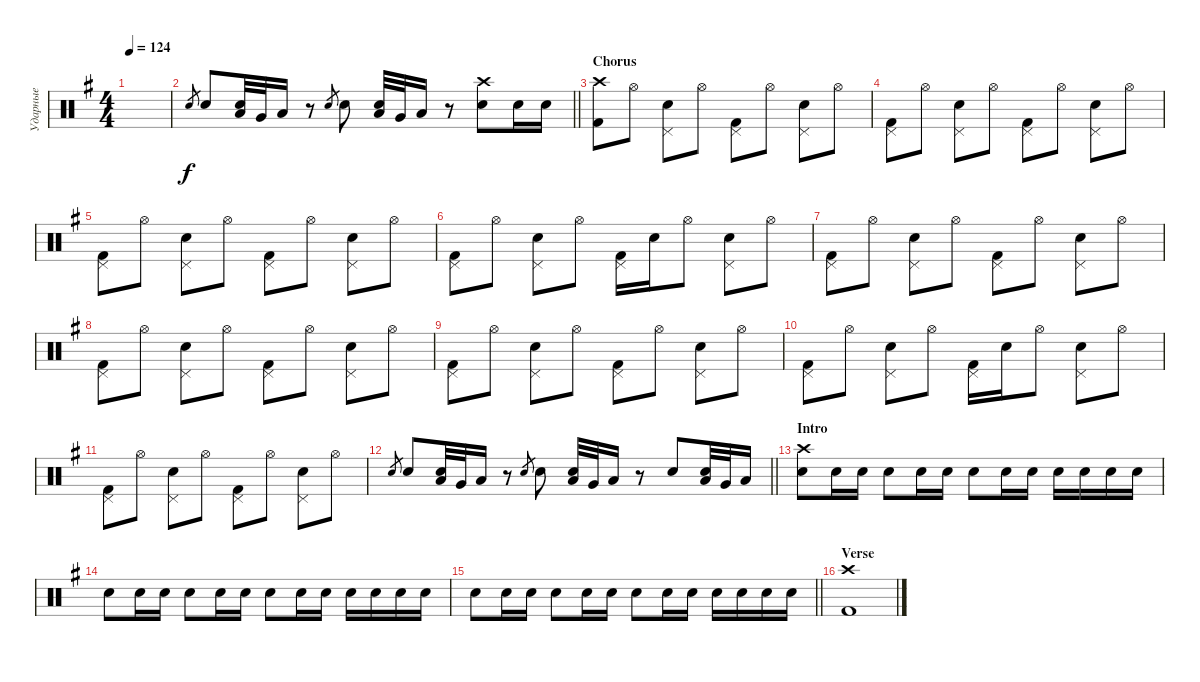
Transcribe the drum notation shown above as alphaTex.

\track ("Ударные" "Ударные") {instrument percussion}
\staff {score}
\articulation defaults
\ts (4 4)
\tempo 124
\clef neutral
\ks g
|
\barLineRight lightlight "Electric Snare (hit)".8{gr} "Electric Snare (hit)".8{volume 13}
("Low Tom (hit)" "Electric Snare (hit)").32 "Very Low Tom (hit)".32 "Low Floor Tom (hit)".16 r.8 "Electric Snare (hit)".8{gr} "Electric Snare (hit)".8 ("Low Tom (hit)" "Electric Snare (hit)").32 "Very Low Tom (hit)".32 "Low Floor Tom (hit)".16 r.8 ("Crash high (hit)" "Electric Snare (hit)").8 "Electric Snare (hit)".16 "Electric Snare (hit)".16 |
\section ("" "Chorus")
("Crash high (hit)" "Kick (hit) 2").8 "Hi-Hat (open)".8 ("Pedal Hi-Hat (hit)" "Electric Snare (hit)").8 "Hi-Hat (open)".8 ("Pedal Hi-Hat (hit)" "Kick (hit) 2").8 "Hi-Hat (open)".8 ("Pedal Hi-Hat (hit)" "Electric Snare (hit)").8 "Hi-Hat (open)".8 |
("Pedal Hi-Hat (hit)" "Kick (hit) 2").8 "Hi-Hat (open)".8 ("Pedal Hi-Hat (hit)" "Electric Snare (hit)").8 "Hi-Hat (open)".8 ("Pedal Hi-Hat (hit)" "Kick (hit) 2").8 "Hi-Hat (open)".8 ("Pedal Hi-Hat (hit)" "Electric Snare (hit)").8 "Hi-Hat (open)".8 |
("Pedal Hi-Hat (hit)" "Kick (hit) 2").8 "Hi-Hat (open)".8 ("Pedal Hi-Hat (hit)" "Electric Snare (hit)").8 "Hi-Hat (open)".8 ("Pedal Hi-Hat (hit)" "Kick (hit) 2").8 "Hi-Hat (open)".8 ("Pedal Hi-Hat (hit)" "Electric Snare (hit)").8 "Hi-Hat (open)".8 |
("Pedal Hi-Hat (hit)" "Kick (hit) 2").8 "Hi-Hat (open)".8 ("Pedal Hi-Hat (hit)" "Electric Snare (hit)").8 "Hi-Hat (open)".8 ("Pedal Hi-Hat (hit)" "Kick (hit) 2").16 "Electric Snare (hit)".16 "Hi-Hat (open)".8 ("Pedal Hi-Hat (hit)" "Electric Snare (hit)").8 "Hi-Hat (open)".8 |
("Pedal Hi-Hat (hit)" "Kick (hit) 2").8 "Hi-Hat (open)".8 ("Pedal Hi-Hat (hit)" "Electric Snare (hit)").8 "Hi-Hat (open)".8 ("Pedal Hi-Hat (hit)" "Kick (hit) 2").8 "Hi-Hat (open)".8 ("Pedal Hi-Hat (hit)" "Electric Snare (hit)").8 "Hi-Hat (open)".8 |
("Pedal Hi-Hat (hit)" "Kick (hit) 2").8 "Hi-Hat (open)".8 ("Pedal Hi-Hat (hit)" "Electric Snare (hit)").8 "Hi-Hat (open)".8 ("Pedal Hi-Hat (hit)" "Kick (hit) 2").8 "Hi-Hat (open)".8 ("Pedal Hi-Hat (hit)" "Electric Snare (hit)").8 "Hi-Hat (open)".8 |
("Pedal Hi-Hat (hit)" "Kick (hit) 2").8 "Hi-Hat (open)".8 ("Pedal Hi-Hat (hit)" "Electric Snare (hit)").8 "Hi-Hat (open)".8 ("Pedal Hi-Hat (hit)" "Kick (hit) 2").8 "Hi-Hat (open)".8 ("Pedal Hi-Hat (hit)" "Electric Snare (hit)").8 "Hi-Hat (open)".8 |
("Pedal Hi-Hat (hit)" "Kick (hit) 2").8 "Hi-Hat (open)".8 ("Pedal Hi-Hat (hit)" "Electric Snare (hit)").8 "Hi-Hat (open)".8 ("Pedal Hi-Hat (hit)" "Kick (hit) 2").16 "Electric Snare (hit)".16 "Hi-Hat (open)".8 ("Pedal Hi-Hat (hit)" "Electric Snare (hit)").8 "Hi-Hat (open)".8 |
("Pedal Hi-Hat (hit)" "Kick (hit) 2").8 "Hi-Hat (open)".8 ("Pedal Hi-Hat (hit)" "Electric Snare (hit)").8 "Hi-Hat (open)".8 ("Pedal Hi-Hat (hit)" "Kick (hit) 2").8 "Hi-Hat (open)".8 ("Pedal Hi-Hat (hit)" "Electric Snare (hit)").8 "Hi-Hat (open)".8 |
\barLineRight lightlight "Electric Snare (hit)".8{gr} "Electric Snare (hit)".8{volume 13}
("Low Tom (hit)" "Electric Snare (hit)").32 "Very Low Tom (hit)".32 "Low Floor Tom (hit)".16 r.8 "Electric Snare (hit)".8{gr} "Electric Snare (hit)".8 ("Low Tom (hit)" "Electric Snare (hit)").32 "Very Low Tom (hit)".32 "Low Floor Tom (hit)".16 r.8 "Electric Snare (hit)".8 ("Low Tom (hit)" "Electric Snare (hit)").32 "Very Low Tom (hit)".32 "Low Floor Tom (hit)".16 |
\section ("" "Intro")
("Crash high (hit)" "Electric Snare (hit)").8{volume 9} "Electric Snare (hit)".16 "Electric Snare (hit)".16 "Electric Snare (hit)".8 "Electric Snare (hit)".16 "Electric Snare (hit)".16 "Electric Snare (hit)".8 "Electric Snare (hit)".16 "Electric Snare (hit)".16 "Electric Snare (hit)".16 "Electric Snare (hit)".16 "Electric Snare (hit)".16 "Electric Snare (hit)".16 |
"Electric Snare (hit)".8{volume 9} "Electric Snare (hit)".16 "Electric Snare (hit)".16 "Electric Snare (hit)".8 "Electric Snare (hit)".16 "Electric Snare (hit)".16 "Electric Snare (hit)".8 "Electric Snare (hit)".16 "Electric Snare (hit)".16 "Electric Snare (hit)".16 "Electric Snare (hit)".16 "Electric Snare (hit)".16 "Electric Snare (hit)".16 |
\barLineRight lightlight "Electric Snare (hit)".8{volume 9} "Electric Snare (hit)".16 "Electric Snare (hit)".16 "Electric Snare (hit)".8 "Electric Snare (hit)".16 "Electric Snare (hit)".16 "Electric Snare (hit)".8 "Electric Snare (hit)".16 "Electric Snare (hit)".16 "Electric Snare (hit)".16 "Electric Snare (hit)".16 "Electric Snare (hit)".16 "Electric Snare (hit)".16
|
\section ("" "Verse")
("Crash high (hit)" "Kick (hit) 2").1
